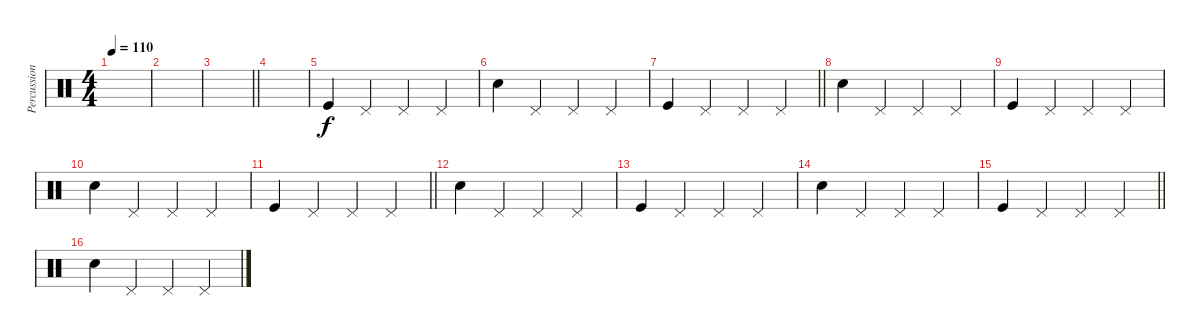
\track ("Percussion" "Percussion") {instrument percussion}
\staff {score}
\articulation defaults
\ts (4 4)
\tempo 110
\clef neutral
\ks c
|
|
\barLineRight lightlight
|
|
"Kick (hit)".4 "Pedal Hi-Hat (hit)".4 "Pedal Hi-Hat (hit)".4 "Pedal Hi-Hat (hit)".4 |
"Electric Snare (hit)".4 "Pedal Hi-Hat (hit)".4 "Pedal Hi-Hat (hit)".4 "Pedal Hi-Hat (hit)".4 |
\barLineRight lightlight "Kick (hit)".4 "Pedal Hi-Hat (hit)".4 "Pedal Hi-Hat (hit)".4 "Pedal Hi-Hat (hit)".4
|
"Electric Snare (hit)".4 "Pedal Hi-Hat (hit)".4 "Pedal Hi-Hat (hit)".4 "Pedal Hi-Hat (hit)".4 |
"Kick (hit)".4 "Pedal Hi-Hat (hit)".4 "Pedal Hi-Hat (hit)".4 "Pedal Hi-Hat (hit)".4 |
"Electric Snare (hit)".4 "Pedal Hi-Hat (hit)".4 "Pedal Hi-Hat (hit)".4 "Pedal Hi-Hat (hit)".4 |
\barLineRight lightlight "Kick (hit)".4 "Pedal Hi-Hat (hit)".4 "Pedal Hi-Hat (hit)".4 "Pedal Hi-Hat (hit)".4
|
"Electric Snare (hit)".4 "Pedal Hi-Hat (hit)".4 "Pedal Hi-Hat (hit)".4 "Pedal Hi-Hat (hit)".4 |
"Kick (hit)".4 "Pedal Hi-Hat (hit)".4 "Pedal Hi-Hat (hit)".4 "Pedal Hi-Hat (hit)".4 |
"Electric Snare (hit)".4 "Pedal Hi-Hat (hit)".4 "Pedal Hi-Hat (hit)".4 "Pedal Hi-Hat (hit)".4 |
\barLineRight lightlight "Kick (hit)".4 "Pedal Hi-Hat (hit)".4 "Pedal Hi-Hat (hit)".4 "Pedal Hi-Hat (hit)".4
|
"Electric Snare (hit)".4 "Pedal Hi-Hat (hit)".4 "Pedal Hi-Hat (hit)".4 "Pedal Hi-Hat (hit)".4
